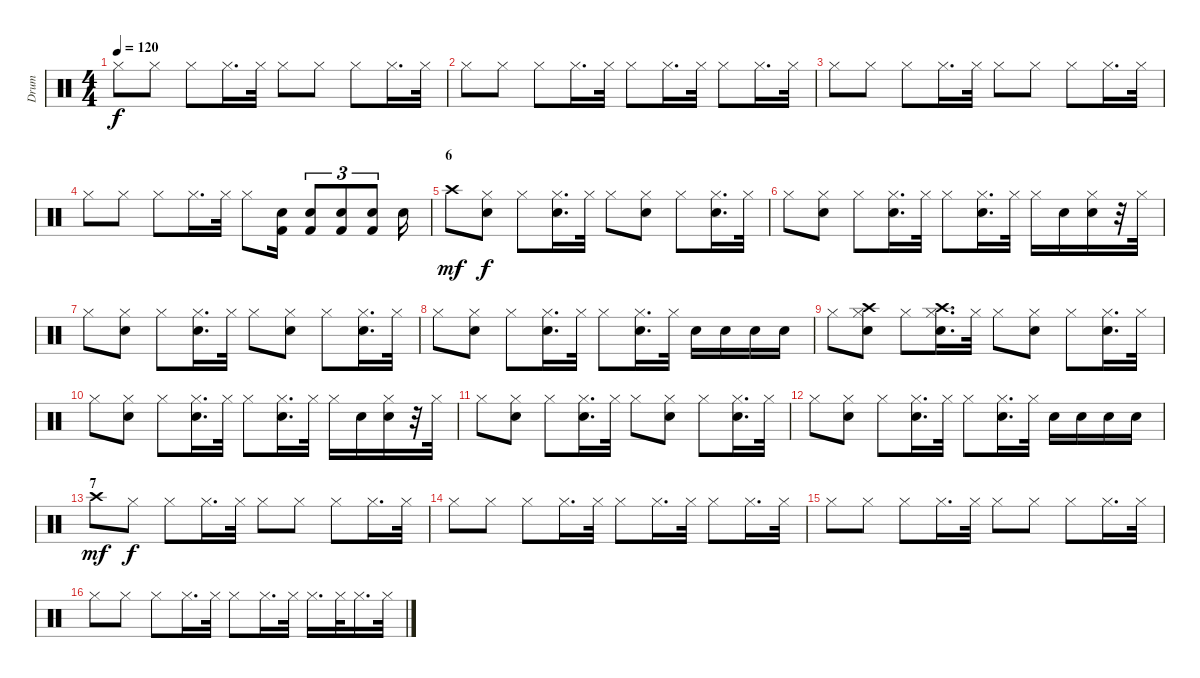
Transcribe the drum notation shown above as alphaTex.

\track ("Drum" "Drum") {instrument percussion}
\staff {score}
\articulation defaults
\ts (4 4)
\tempo 120
\clef neutral
\ks c "Hi-Hat (closed)".8{dy f} "Hi-Hat (closed)".8 "Hi-Hat (closed)".8 "Hi-Hat (closed)".16{d} "Hi-Hat (closed)".32 "Hi-Hat (closed)".8 "Hi-Hat (closed)".8 "Hi-Hat (closed)".8 "Hi-Hat (closed)".16{d} "Hi-Hat (closed)".32
|
"Hi-Hat (closed)".8 "Hi-Hat (closed)".8 "Hi-Hat (closed)".8 "Hi-Hat (closed)".16{d} "Hi-Hat (closed)".32 "Hi-Hat (closed)".8 "Hi-Hat (closed)".16{d} "Hi-Hat (closed)".32 "Hi-Hat (closed)".8 "Hi-Hat (closed)".16{d} "Hi-Hat (closed)".32 |
"Hi-Hat (closed)".8 "Hi-Hat (closed)".8 "Hi-Hat (closed)".8 "Hi-Hat (closed)".16{d} "Hi-Hat (closed)".32 "Hi-Hat (closed)".8 "Hi-Hat (closed)".8 "Hi-Hat (closed)".8 "Hi-Hat (closed)".16{d} "Hi-Hat (closed)".32 |
"Hi-Hat (closed)".8 "Hi-Hat (closed)".8 "Hi-Hat (closed)".8 "Hi-Hat (closed)".16{d} "Hi-Hat (closed)".32 "Hi-Hat (closed)".8 ("Electric Snare (hit)" "Kick (hit) 2").16 ("Electric Snare (hit)" "Kick (hit) 2").8{tu (3 2)} ("Electric Snare (hit)" "Kick (hit) 2").8{tu (3 2)} ("Electric Snare (hit)" "Kick (hit) 2").8{tu (3 2)} "Electric Snare (hit)".16 |
\section ("" "6")
"Crash high (hit)".8{dy mf} ("Hi-Hat (closed)" "Electric Snare (hit)").8{dy f} "Hi-Hat (closed)".8 ("Hi-Hat (closed)" "Electric Snare (hit)").16{d} "Hi-Hat (closed)".32 "Hi-Hat (closed)".8 ("Hi-Hat (closed)" "Electric Snare (hit)").8 "Hi-Hat (closed)".8 ("Hi-Hat (closed)" "Electric Snare (hit)").16{d} "Hi-Hat (closed)".32 |
"Hi-Hat (closed)".8 ("Hi-Hat (closed)" "Electric Snare (hit)").8 "Hi-Hat (closed)".8 ("Hi-Hat (closed)" "Electric Snare (hit)").16{d} "Hi-Hat (closed)".32 "Hi-Hat (closed)".8 ("Hi-Hat (closed)" "Electric Snare (hit)").16{d} "Hi-Hat (closed)".32 "Hi-Hat (closed)".16 "Electric Snare (hit)".16 ("Hi-Hat (closed)" "Electric Snare (hit)").16 r.32 "Hi-Hat (closed)".32 |
"Hi-Hat (closed)".8 ("Hi-Hat (closed)" "Electric Snare (hit)").8 "Hi-Hat (closed)".8 ("Hi-Hat (closed)" "Electric Snare (hit)").16{d} "Hi-Hat (closed)".32 "Hi-Hat (closed)".8 ("Hi-Hat (closed)" "Electric Snare (hit)").8 "Hi-Hat (closed)".8 ("Hi-Hat (closed)" "Electric Snare (hit)").16{d} "Hi-Hat (closed)".32 |
"Hi-Hat (closed)".8 ("Hi-Hat (closed)" "Electric Snare (hit)").8 "Hi-Hat (closed)".8 ("Hi-Hat (closed)" "Electric Snare (hit)").16{d} "Hi-Hat (closed)".32 "Hi-Hat (closed)".8 ("Hi-Hat (closed)" "Electric Snare (hit)").16{d} "Hi-Hat (closed)".32 "Electric Snare (hit)".16 "Electric Snare (hit)".16 "Electric Snare (hit)".16 "Electric Snare (hit)".16 |
"Hi-Hat (closed)".8 ("Crash high (hit)" "Hi-Hat (closed)" "Electric Snare (hit)").8 "Hi-Hat (closed)".8 ("Crash high (hit)" "Hi-Hat (closed)" "Electric Snare (hit)").16{d} "Hi-Hat (closed)".32 "Hi-Hat (closed)".8 ("Hi-Hat (closed)" "Electric Snare (hit)").8 "Hi-Hat (closed)".8 ("Hi-Hat (closed)" "Electric Snare (hit)").16{d} "Hi-Hat (closed)".32 |
"Hi-Hat (closed)".8 ("Hi-Hat (closed)" "Electric Snare (hit)").8 "Hi-Hat (closed)".8 ("Hi-Hat (closed)" "Electric Snare (hit)").16{d} "Hi-Hat (closed)".32 "Hi-Hat (closed)".8 ("Hi-Hat (closed)" "Electric Snare (hit)").16{d} "Hi-Hat (closed)".32 "Hi-Hat (closed)".16 "Electric Snare (hit)".16 ("Hi-Hat (closed)" "Electric Snare (hit)").16 r.32 "Hi-Hat (closed)".32 |
"Hi-Hat (closed)".8 ("Hi-Hat (closed)" "Electric Snare (hit)").8 "Hi-Hat (closed)".8 ("Hi-Hat (closed)" "Electric Snare (hit)").16{d} "Hi-Hat (closed)".32 "Hi-Hat (closed)".8 ("Hi-Hat (closed)" "Electric Snare (hit)").8 "Hi-Hat (closed)".8 ("Hi-Hat (closed)" "Electric Snare (hit)").16{d} "Hi-Hat (closed)".32 |
"Hi-Hat (closed)".8 ("Hi-Hat (closed)" "Electric Snare (hit)").8 "Hi-Hat (closed)".8 ("Hi-Hat (closed)" "Electric Snare (hit)").16{d} "Hi-Hat (closed)".32 "Hi-Hat (closed)".8 ("Hi-Hat (closed)" "Electric Snare (hit)").16{d} "Hi-Hat (closed)".32 "Electric Snare (hit)".16 "Electric Snare (hit)".16 "Electric Snare (hit)".16 "Electric Snare (hit)".16 |
\section ("" "7")
"Crash high (hit)".8{dy mf} "Hi-Hat (closed)".8{dy f} "Hi-Hat (closed)".8 "Hi-Hat (closed)".16{d} "Hi-Hat (closed)".32 "Hi-Hat (closed)".8 "Hi-Hat (closed)".8 "Hi-Hat (closed)".8 "Hi-Hat (closed)".16{d} "Hi-Hat (closed)".32 |
"Hi-Hat (closed)".8 "Hi-Hat (closed)".8 "Hi-Hat (closed)".8 "Hi-Hat (closed)".16{d} "Hi-Hat (closed)".32 "Hi-Hat (closed)".8 "Hi-Hat (closed)".16{d} "Hi-Hat (closed)".32 "Hi-Hat (closed)".8 "Hi-Hat (closed)".16{d} "Hi-Hat (closed)".32 |
"Hi-Hat (closed)".8 "Hi-Hat (closed)".8 "Hi-Hat (closed)".8 "Hi-Hat (closed)".16{d} "Hi-Hat (closed)".32 "Hi-Hat (closed)".8 "Hi-Hat (closed)".8 "Hi-Hat (closed)".8 "Hi-Hat (closed)".16{d} "Hi-Hat (closed)".32 |
"Hi-Hat (closed)".8 "Hi-Hat (closed)".8 "Hi-Hat (closed)".8 "Hi-Hat (closed)".16{d} "Hi-Hat (closed)".32 "Hi-Hat (closed)".8 "Hi-Hat (closed)".16{d} "Hi-Hat (closed)".32 "Hi-Hat (closed)".16{d} "Hi-Hat (closed)".32 "Hi-Hat (closed)".16{d} "Hi-Hat (closed)".32
